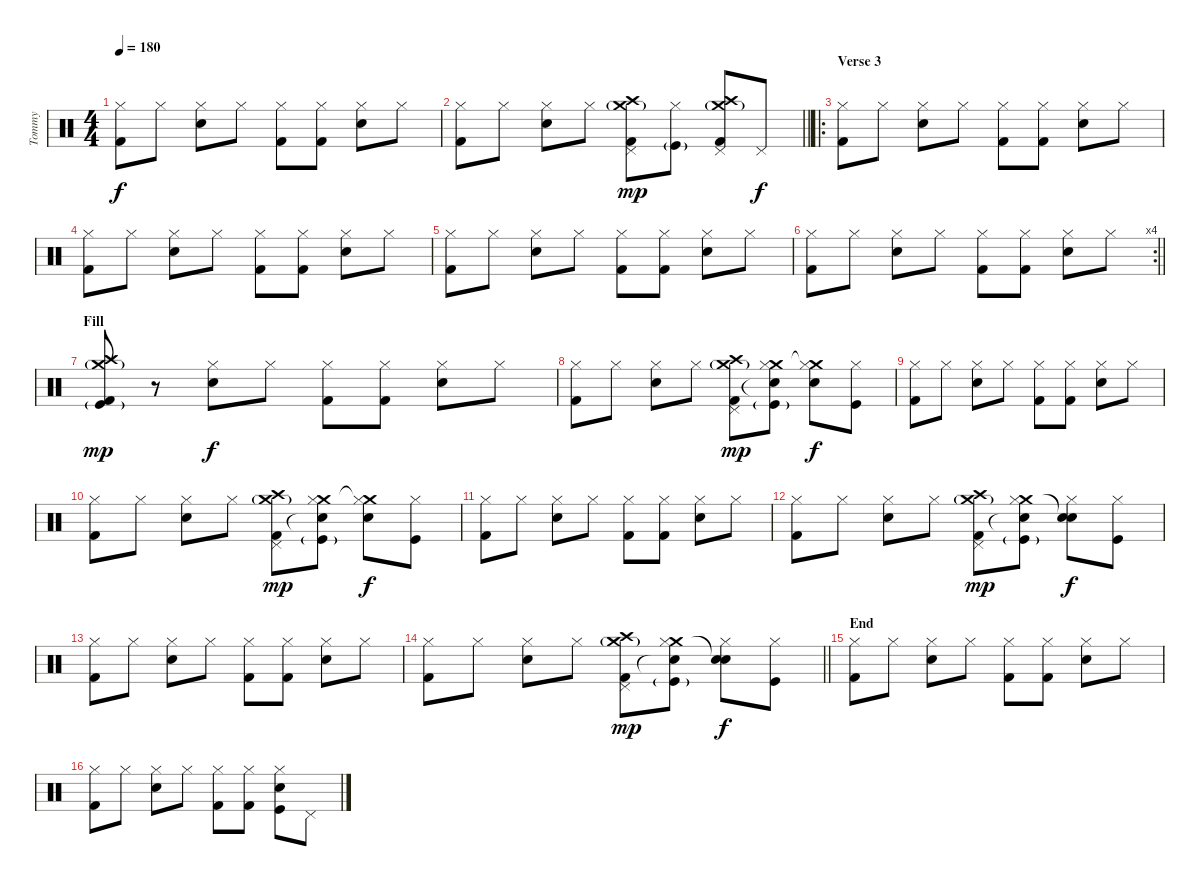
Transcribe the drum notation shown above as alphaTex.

\track ("Tommy" "Tommy") {instrument percussion}
\staff {score}
\articulation defaults
\ts (4 4)
\tempo 180
\clef neutral
\ks c
("Hi-Hat (closed)" "Kick (hit) 2").8{dy f} "Hi-Hat (closed)".8 ("Hi-Hat (closed)" "Electric Snare (hit)").8 "Hi-Hat (closed)".8 ("Hi-Hat (closed)" "Kick (hit) 2").8 ("Hi-Hat (closed)" "Kick (hit) 2").8 ("Hi-Hat (closed)" "Electric Snare (hit)").8 "Hi-Hat (closed)".8 |
\barLineRight lightlight
("Hi-Hat (closed)" "Kick (hit) 2").8 "Hi-Hat (closed)".8 ("Hi-Hat (closed)" "Electric Snare (hit)").8 "Hi-Hat (closed)".8 ("Crash medium (hit)"{g} "Crash high (hit)" "Kick (hit) 2" "Pedal Hi-Hat (hit)").8{dy mp} ("Hi-Hat (closed)" "Kick (hit)"{g}).8 ("Crash medium (hit)"{g} "Crash high (hit)" "Kick (hit) 2" "Pedal Hi-Hat (hit)").8 "Pedal Hi-Hat (hit)".8{dy f} |
\ro
\section ("" "Verse 3")
("Hi-Hat (closed)" "Kick (hit) 2").8 "Hi-Hat (closed)".8 ("Hi-Hat (closed)" "Electric Snare (hit)").8 "Hi-Hat (closed)".8 ("Hi-Hat (closed)" "Kick (hit) 2").8 ("Hi-Hat (closed)" "Kick (hit) 2").8 ("Hi-Hat (closed)" "Electric Snare (hit)").8 "Hi-Hat (closed)".8 |
("Hi-Hat (closed)" "Kick (hit) 2").8 "Hi-Hat (closed)".8 ("Hi-Hat (closed)" "Electric Snare (hit)").8 "Hi-Hat (closed)".8 ("Hi-Hat (closed)" "Kick (hit) 2").8 ("Hi-Hat (closed)" "Kick (hit) 2").8 ("Hi-Hat (closed)" "Electric Snare (hit)").8 "Hi-Hat (closed)".8 |
("Hi-Hat (closed)" "Kick (hit) 2").8 "Hi-Hat (closed)".8 ("Hi-Hat (closed)" "Electric Snare (hit)").8 "Hi-Hat (closed)".8 ("Hi-Hat (closed)" "Kick (hit) 2").8 ("Hi-Hat (closed)" "Kick (hit) 2").8 ("Hi-Hat (closed)" "Electric Snare (hit)").8 "Hi-Hat (closed)".8 |
\rc 4
\barLineRight lightlight
("Hi-Hat (closed)" "Kick (hit) 2").8 "Hi-Hat (closed)".8 ("Hi-Hat (closed)" "Electric Snare (hit)").8 "Hi-Hat (closed)".8 ("Hi-Hat (closed)" "Kick (hit) 2").8 ("Hi-Hat (closed)" "Kick (hit) 2").8 ("Hi-Hat (closed)" "Electric Snare (hit)").8 "Hi-Hat (closed)".8 |
\section ("" "Fill")
("Crash medium (hit)"{g} "Crash high (hit)" "Kick (hit) 2" "Kick (hit)"{g}).8{dy mp} r.8 ("Hi-Hat (closed)" "Electric Snare (hit)").8{dy f} "Hi-Hat (closed)".8 ("Hi-Hat (closed)" "Kick (hit) 2").8 ("Hi-Hat (closed)" "Kick (hit) 2").8 ("Hi-Hat (closed)" "Electric Snare (hit)").8 "Hi-Hat (closed)".8 |
("Hi-Hat (closed)" "Kick (hit) 2").8 "Hi-Hat (closed)".8 ("Hi-Hat (closed)" "Electric Snare (hit)").8 "Hi-Hat (closed)".8 ("Crash medium (hit)"{g} "Crash high (hit)" "Kick (hit) 2" "Pedal Hi-Hat (hit)").8{dy mp} ("Crash medium (hit)" "Hi-Hat (closed)" "Snare (hit)"{t} "Kick (hit)"{g}).8 ("Crash medium (hit)"{t} "Hi-Hat (closed)" "Electric Snare (hit)").8{dy f} ("Hi-Hat (closed)" "Kick (hit)").8 |
("Hi-Hat (closed)" "Kick (hit) 2").8 "Hi-Hat (closed)".8 ("Hi-Hat (closed)" "Electric Snare (hit)").8 "Hi-Hat (closed)".8 ("Hi-Hat (closed)" "Kick (hit) 2").8 ("Hi-Hat (closed)" "Kick (hit) 2").8 ("Hi-Hat (closed)" "Electric Snare (hit)").8 "Hi-Hat (closed)".8 |
("Hi-Hat (closed)" "Kick (hit) 2").8 "Hi-Hat (closed)".8 ("Hi-Hat (closed)" "Electric Snare (hit)").8 "Hi-Hat (closed)".8 ("Crash medium (hit)"{g} "Crash high (hit)" "Kick (hit) 2" "Pedal Hi-Hat (hit)").8{dy mp} ("Crash medium (hit)" "Hi-Hat (closed)" "Snare (hit)"{t} "Kick (hit)"{g}).8 ("Crash medium (hit)"{t} "Hi-Hat (closed)" "Electric Snare (hit)").8{dy f} ("Hi-Hat (closed)" "Kick (hit)").8 |
("Hi-Hat (closed)" "Kick (hit) 2").8 "Hi-Hat (closed)".8 ("Hi-Hat (closed)" "Electric Snare (hit)").8 "Hi-Hat (closed)".8 ("Hi-Hat (closed)" "Kick (hit) 2").8 ("Hi-Hat (closed)" "Kick (hit) 2").8 ("Hi-Hat (closed)" "Electric Snare (hit)").8 "Hi-Hat (closed)".8 |
("Hi-Hat (closed)" "Kick (hit) 2").8 "Hi-Hat (closed)".8 ("Hi-Hat (closed)" "Electric Snare (hit)").8 "Hi-Hat (closed)".8 ("Crash medium (hit)"{g} "Crash high (hit)" "Kick (hit) 2" "Pedal Hi-Hat (hit)").8{dy mp} ("Crash medium (hit)" "Hi-Hat (closed)" "Snare (hit)"{t} "Kick (hit)"{g}).8 ("Snare (hit)"{t} "Hi-Hat (closed)" "Electric Snare (hit)").8{dy f} ("Hi-Hat (closed)" "Kick (hit)").8 |
("Hi-Hat (closed)" "Kick (hit) 2").8 "Hi-Hat (closed)".8 ("Hi-Hat (closed)" "Electric Snare (hit)").8 "Hi-Hat (closed)".8 ("Hi-Hat (closed)" "Kick (hit) 2").8 ("Hi-Hat (closed)" "Kick (hit) 2").8 ("Hi-Hat (closed)" "Electric Snare (hit)").8 "Hi-Hat (closed)".8 |
\barLineRight lightlight
("Hi-Hat (closed)" "Kick (hit) 2").8 "Hi-Hat (closed)".8 ("Hi-Hat (closed)" "Electric Snare (hit)").8 "Hi-Hat (closed)".8 ("Crash medium (hit)"{g} "Crash high (hit)" "Kick (hit) 2" "Pedal Hi-Hat (hit)").8{dy mp} ("Crash medium (hit)" "Hi-Hat (closed)" "Snare (hit)"{t} "Kick (hit)"{g}).8 ("Snare (hit)"{t} "Hi-Hat (closed)" "Electric Snare (hit)").8{dy f} ("Hi-Hat (closed)" "Kick (hit)").8 |
\section ("" "End")
("Hi-Hat (closed)" "Kick (hit) 2").8 "Hi-Hat (closed)".8 ("Hi-Hat (closed)" "Electric Snare (hit)").8 "Hi-Hat (closed)".8 ("Hi-Hat (closed)" "Kick (hit) 2").8 ("Hi-Hat (closed)" "Kick (hit) 2").8 ("Hi-Hat (closed)" "Electric Snare (hit)").8 "Hi-Hat (closed)".8 |
("Hi-Hat (closed)" "Kick (hit) 2").8 "Hi-Hat (closed)".8 ("Hi-Hat (closed)" "Electric Snare (hit)").8 "Hi-Hat (closed)".8 ("Hi-Hat (closed)" "Kick (hit) 2").8 ("Hi-Hat (closed)" "Kick (hit) 2").8 ("Hi-Hat (closed)" "Electric Snare (hit)" "Kick (hit)").8 "Pedal Hi-Hat (hit)".8
